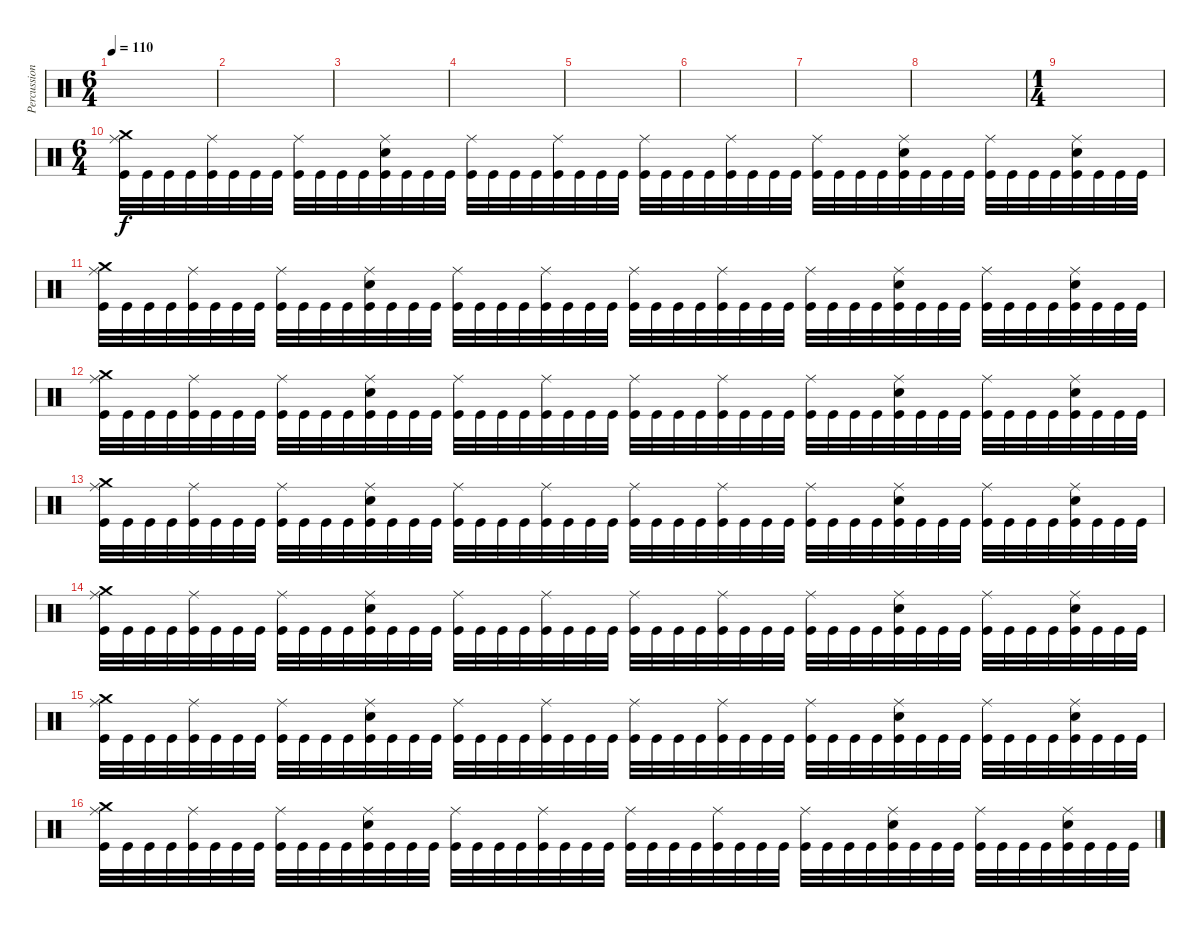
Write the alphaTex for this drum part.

\track ("Percussion" "Percussion") {instrument percussion}
\staff {score}
\articulation defaults
\ts (6 4)
\tempo 110
\clef neutral
\ks c
|
|
|
|
|
|
|
|
\ts (1 4)
|
\ts (6 4)
("Crash medium (hit)" "Ride (middle)" "Kick (hit)").32 "Kick (hit)".32 "Kick (hit)".32 "Kick (hit)".32 ("Ride (middle)" "Kick (hit)").32 "Kick (hit)".32 "Kick (hit)".32 "Kick (hit)".32 ("Ride (middle)" "Kick (hit)").32 "Kick (hit)".32 "Kick (hit)".32 "Kick (hit)".32 ("Ride (middle)" "Electric Snare (hit)" "Kick (hit)").32 "Kick (hit)".32 "Kick (hit)".32 "Kick (hit)".32 ("Ride (middle)" "Kick (hit)").32 "Kick (hit)".32 "Kick (hit)".32 "Kick (hit)".32 ("Ride (middle)" "Kick (hit)").32 "Kick (hit)".32 "Kick (hit)".32 "Kick (hit)".32 ("Ride (middle)" "Kick (hit)").32 "Kick (hit)".32 "Kick (hit)".32 "Kick (hit)".32 ("Ride (middle)" "Kick (hit)").32 "Kick (hit)".32 "Kick (hit)".32 "Kick (hit)".32 ("Ride (middle)" "Kick (hit)").32 "Kick (hit)".32 "Kick (hit)".32 "Kick (hit)".32 ("Ride (middle)" "Electric Snare (hit)" "Kick (hit)").32 "Kick (hit)".32 "Kick (hit)".32 "Kick (hit)".32 ("Ride (middle)" "Kick (hit)").32 "Kick (hit)".32 "Kick (hit)".32 "Kick (hit)".32 ("Ride (middle)" "Electric Snare (hit)" "Kick (hit)").32 "Kick (hit)".32 "Kick (hit)".32 "Kick (hit)".32 |
("Crash medium (hit)" "Ride (middle)" "Kick (hit)").32 "Kick (hit)".32 "Kick (hit)".32 "Kick (hit)".32 ("Ride (middle)" "Kick (hit)").32 "Kick (hit)".32 "Kick (hit)".32 "Kick (hit)".32 ("Ride (middle)" "Kick (hit)").32 "Kick (hit)".32 "Kick (hit)".32 "Kick (hit)".32 ("Ride (middle)" "Electric Snare (hit)" "Kick (hit)").32 "Kick (hit)".32 "Kick (hit)".32 "Kick (hit)".32 ("Ride (middle)" "Kick (hit)").32 "Kick (hit)".32 "Kick (hit)".32 "Kick (hit)".32 ("Ride (middle)" "Kick (hit)").32 "Kick (hit)".32 "Kick (hit)".32 "Kick (hit)".32 ("Ride (middle)" "Kick (hit)").32 "Kick (hit)".32 "Kick (hit)".32 "Kick (hit)".32 ("Ride (middle)" "Kick (hit)").32 "Kick (hit)".32 "Kick (hit)".32 "Kick (hit)".32 ("Ride (middle)" "Kick (hit)").32 "Kick (hit)".32 "Kick (hit)".32 "Kick (hit)".32 ("Ride (middle)" "Electric Snare (hit)" "Kick (hit)").32 "Kick (hit)".32 "Kick (hit)".32 "Kick (hit)".32 ("Ride (middle)" "Kick (hit)").32 "Kick (hit)".32 "Kick (hit)".32 "Kick (hit)".32 ("Ride (middle)" "Electric Snare (hit)" "Kick (hit)").32 "Kick (hit)".32 "Kick (hit)".32 "Kick (hit)".32 |
("Crash medium (hit)" "Ride (middle)" "Kick (hit)").32 "Kick (hit)".32 "Kick (hit)".32 "Kick (hit)".32 ("Ride (middle)" "Kick (hit)").32 "Kick (hit)".32 "Kick (hit)".32 "Kick (hit)".32 ("Ride (middle)" "Kick (hit)").32 "Kick (hit)".32 "Kick (hit)".32 "Kick (hit)".32 ("Ride (middle)" "Electric Snare (hit)" "Kick (hit)").32 "Kick (hit)".32 "Kick (hit)".32 "Kick (hit)".32 ("Ride (middle)" "Kick (hit)").32 "Kick (hit)".32 "Kick (hit)".32 "Kick (hit)".32 ("Ride (middle)" "Kick (hit)").32 "Kick (hit)".32 "Kick (hit)".32 "Kick (hit)".32 ("Ride (middle)" "Kick (hit)").32 "Kick (hit)".32 "Kick (hit)".32 "Kick (hit)".32 ("Ride (middle)" "Kick (hit)").32 "Kick (hit)".32 "Kick (hit)".32 "Kick (hit)".32 ("Ride (middle)" "Kick (hit)").32 "Kick (hit)".32 "Kick (hit)".32 "Kick (hit)".32 ("Ride (middle)" "Electric Snare (hit)" "Kick (hit)").32 "Kick (hit)".32 "Kick (hit)".32 "Kick (hit)".32 ("Ride (middle)" "Kick (hit)").32 "Kick (hit)".32 "Kick (hit)".32 "Kick (hit)".32 ("Ride (middle)" "Electric Snare (hit)" "Kick (hit)").32 "Kick (hit)".32 "Kick (hit)".32 "Kick (hit)".32 |
("Crash medium (hit)" "Ride (middle)" "Kick (hit)").32 "Kick (hit)".32 "Kick (hit)".32 "Kick (hit)".32 ("Ride (middle)" "Kick (hit)").32 "Kick (hit)".32 "Kick (hit)".32 "Kick (hit)".32 ("Ride (middle)" "Kick (hit)").32 "Kick (hit)".32 "Kick (hit)".32 "Kick (hit)".32 ("Ride (middle)" "Electric Snare (hit)" "Kick (hit)").32 "Kick (hit)".32 "Kick (hit)".32 "Kick (hit)".32 ("Ride (middle)" "Kick (hit)").32 "Kick (hit)".32 "Kick (hit)".32 "Kick (hit)".32 ("Ride (middle)" "Kick (hit)").32 "Kick (hit)".32 "Kick (hit)".32 "Kick (hit)".32 ("Ride (middle)" "Kick (hit)").32 "Kick (hit)".32 "Kick (hit)".32 "Kick (hit)".32 ("Ride (middle)" "Kick (hit)").32 "Kick (hit)".32 "Kick (hit)".32 "Kick (hit)".32 ("Ride (middle)" "Kick (hit)").32 "Kick (hit)".32 "Kick (hit)".32 "Kick (hit)".32 ("Ride (middle)" "Electric Snare (hit)" "Kick (hit)").32 "Kick (hit)".32 "Kick (hit)".32 "Kick (hit)".32 ("Ride (middle)" "Kick (hit)").32 "Kick (hit)".32 "Kick (hit)".32 "Kick (hit)".32 ("Ride (middle)" "Electric Snare (hit)" "Kick (hit)").32 "Kick (hit)".32 "Kick (hit)".32 "Kick (hit)".32 |
("Crash medium (hit)" "Ride (middle)" "Kick (hit)").32 "Kick (hit)".32 "Kick (hit)".32 "Kick (hit)".32 ("Ride (middle)" "Kick (hit)").32 "Kick (hit)".32 "Kick (hit)".32 "Kick (hit)".32 ("Ride (middle)" "Kick (hit)").32 "Kick (hit)".32 "Kick (hit)".32 "Kick (hit)".32 ("Ride (middle)" "Electric Snare (hit)" "Kick (hit)").32 "Kick (hit)".32 "Kick (hit)".32 "Kick (hit)".32 ("Ride (middle)" "Kick (hit)").32 "Kick (hit)".32 "Kick (hit)".32 "Kick (hit)".32 ("Ride (middle)" "Kick (hit)").32 "Kick (hit)".32 "Kick (hit)".32 "Kick (hit)".32 ("Ride (middle)" "Kick (hit)").32 "Kick (hit)".32 "Kick (hit)".32 "Kick (hit)".32 ("Ride (middle)" "Kick (hit)").32 "Kick (hit)".32 "Kick (hit)".32 "Kick (hit)".32 ("Ride (middle)" "Kick (hit)").32 "Kick (hit)".32 "Kick (hit)".32 "Kick (hit)".32 ("Ride (middle)" "Electric Snare (hit)" "Kick (hit)").32 "Kick (hit)".32 "Kick (hit)".32 "Kick (hit)".32 ("Ride (middle)" "Kick (hit)").32 "Kick (hit)".32 "Kick (hit)".32 "Kick (hit)".32 ("Ride (middle)" "Electric Snare (hit)" "Kick (hit)").32 "Kick (hit)".32 "Kick (hit)".32 "Kick (hit)".32 |
("Crash medium (hit)" "Ride (middle)" "Kick (hit)").32 "Kick (hit)".32 "Kick (hit)".32 "Kick (hit)".32 ("Ride (middle)" "Kick (hit)").32 "Kick (hit)".32 "Kick (hit)".32 "Kick (hit)".32 ("Ride (middle)" "Kick (hit)").32 "Kick (hit)".32 "Kick (hit)".32 "Kick (hit)".32 ("Ride (middle)" "Electric Snare (hit)" "Kick (hit)").32 "Kick (hit)".32 "Kick (hit)".32 "Kick (hit)".32 ("Ride (middle)" "Kick (hit)").32 "Kick (hit)".32 "Kick (hit)".32 "Kick (hit)".32 ("Ride (middle)" "Kick (hit)").32 "Kick (hit)".32 "Kick (hit)".32 "Kick (hit)".32 ("Ride (middle)" "Kick (hit)").32 "Kick (hit)".32 "Kick (hit)".32 "Kick (hit)".32 ("Ride (middle)" "Kick (hit)").32 "Kick (hit)".32 "Kick (hit)".32 "Kick (hit)".32 ("Ride (middle)" "Kick (hit)").32 "Kick (hit)".32 "Kick (hit)".32 "Kick (hit)".32 ("Ride (middle)" "Electric Snare (hit)" "Kick (hit)").32 "Kick (hit)".32 "Kick (hit)".32 "Kick (hit)".32 ("Ride (middle)" "Kick (hit)").32 "Kick (hit)".32 "Kick (hit)".32 "Kick (hit)".32 ("Ride (middle)" "Electric Snare (hit)" "Kick (hit)").32 "Kick (hit)".32 "Kick (hit)".32 "Kick (hit)".32 |
("Crash medium (hit)" "Ride (middle)" "Kick (hit)").32 "Kick (hit)".32 "Kick (hit)".32 "Kick (hit)".32 ("Ride (middle)" "Kick (hit)").32 "Kick (hit)".32 "Kick (hit)".32 "Kick (hit)".32 ("Ride (middle)" "Kick (hit)").32 "Kick (hit)".32 "Kick (hit)".32 "Kick (hit)".32 ("Ride (middle)" "Electric Snare (hit)" "Kick (hit)").32 "Kick (hit)".32 "Kick (hit)".32 "Kick (hit)".32 ("Ride (middle)" "Kick (hit)").32 "Kick (hit)".32 "Kick (hit)".32 "Kick (hit)".32 ("Ride (middle)" "Kick (hit)").32 "Kick (hit)".32 "Kick (hit)".32 "Kick (hit)".32 ("Ride (middle)" "Kick (hit)").32 "Kick (hit)".32 "Kick (hit)".32 "Kick (hit)".32 ("Ride (middle)" "Kick (hit)").32 "Kick (hit)".32 "Kick (hit)".32 "Kick (hit)".32 ("Ride (middle)" "Kick (hit)").32 "Kick (hit)".32 "Kick (hit)".32 "Kick (hit)".32 ("Ride (middle)" "Electric Snare (hit)" "Kick (hit)").32 "Kick (hit)".32 "Kick (hit)".32 "Kick (hit)".32 ("Ride (middle)" "Kick (hit)").32 "Kick (hit)".32 "Kick (hit)".32 "Kick (hit)".32 ("Ride (middle)" "Electric Snare (hit)" "Kick (hit)").32 "Kick (hit)".32 "Kick (hit)".32 "Kick (hit)".32
